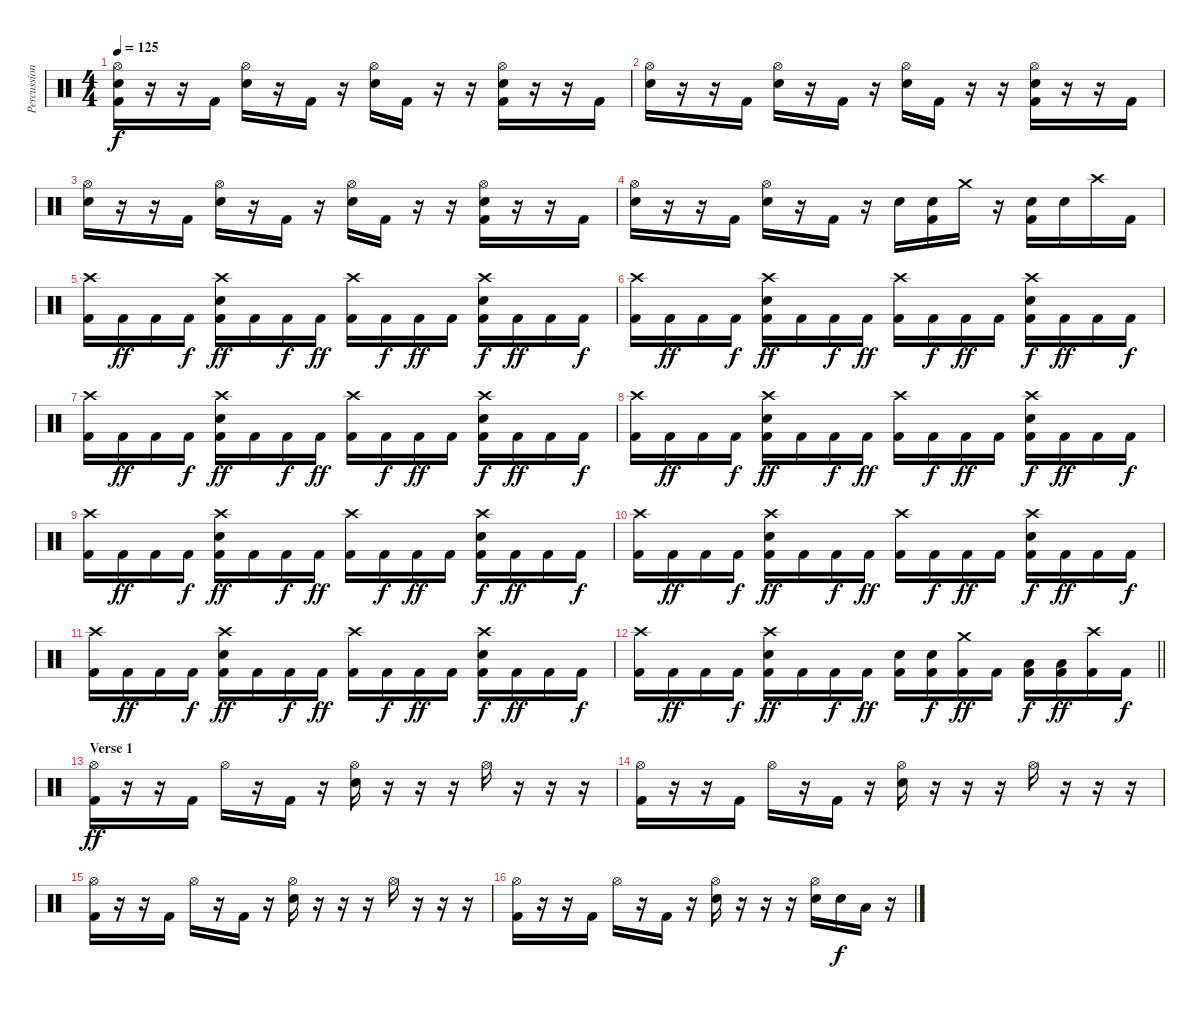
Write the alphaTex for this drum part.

\track ("Percussion" "Percussion") {instrument percussion}
\staff {score}
\articulation defaults
\ts (4 4)
\tempo 125
\clef neutral
\ks c
("Hi-Hat (open)" "Electric Snare (hit)" "Kick (hit) 2").16{dy f} r.16 r.16 "Kick (hit) 2".16 ("Hi-Hat (open)" "Electric Snare (hit)").16 r.16 "Kick (hit) 2".16 r.16 ("Hi-Hat (open)" "Electric Snare (hit)").16 "Kick (hit) 2".16 r.16 r.16 ("Hi-Hat (open)" "Electric Snare (hit)" "Kick (hit) 2").16 r.16 r.16 "Kick (hit) 2".16 |
("Hi-Hat (open)" "Electric Snare (hit)").16 r.16 r.16 "Kick (hit) 2".16 ("Hi-Hat (open)" "Electric Snare (hit)").16 r.16 "Kick (hit) 2".16 r.16 ("Hi-Hat (open)" "Electric Snare (hit)").16 "Kick (hit) 2".16 r.16 r.16 ("Hi-Hat (open)" "Electric Snare (hit)" "Kick (hit) 2").16 r.16 r.16 "Kick (hit) 2".16 |
("Hi-Hat (open)" "Electric Snare (hit)").16 r.16 r.16 "Kick (hit) 2".16 ("Hi-Hat (open)" "Electric Snare (hit)").16 r.16 "Kick (hit) 2".16 r.16 ("Hi-Hat (open)" "Electric Snare (hit)").16 "Kick (hit) 2".16 r.16 r.16 ("Hi-Hat (open)" "Electric Snare (hit)" "Kick (hit) 2").16 r.16 r.16 "Kick (hit) 2".16 |
("Hi-Hat (open)" "Electric Snare (hit)").16 r.16 r.16 "Kick (hit) 2".16 ("Hi-Hat (open)" "Electric Snare (hit)").16 r.16 "Kick (hit) 2".16 r.16 "Electric Snare (hit)".16 ("Electric Snare (hit)" "Kick (hit) 2").16 "Crash medium (hit)".16 r.16 ("Electric Snare (hit)" "Kick (hit) 2").16 "Electric Snare (hit)".16 "Crash high (hit)".16 "Kick (hit) 2".16 |
("Crash high (hit)" "Kick (hit) 2").16 "Kick (hit) 2".16{dy ff} "Kick (hit) 2".16 "Kick (hit) 2".16{dy f} ("Crash high (hit)" "Electric Snare (hit)" "Kick (hit) 2").16{dy ff} "Kick (hit) 2".16 "Kick (hit) 2".16{dy f} "Kick (hit) 2".16{dy ff} ("Crash high (hit)" "Kick (hit) 2").16 "Kick (hit) 2".16{dy f} "Kick (hit) 2".16{dy ff} "Kick (hit) 2".16 ("Crash high (hit)" "Electric Snare (hit)" "Kick (hit) 2").16{dy f} "Kick (hit) 2".16{dy ff} "Kick (hit) 2".16 "Kick (hit) 2".16{dy f} |
("Crash high (hit)" "Kick (hit) 2").16 "Kick (hit) 2".16{dy ff} "Kick (hit) 2".16 "Kick (hit) 2".16{dy f} ("Crash high (hit)" "Electric Snare (hit)" "Kick (hit) 2").16{dy ff} "Kick (hit) 2".16 "Kick (hit) 2".16{dy f} "Kick (hit) 2".16{dy ff} ("Crash high (hit)" "Kick (hit) 2").16 "Kick (hit) 2".16{dy f} "Kick (hit) 2".16{dy ff} "Kick (hit) 2".16 ("Crash high (hit)" "Electric Snare (hit)" "Kick (hit) 2").16{dy f} "Kick (hit) 2".16{dy ff} "Kick (hit) 2".16 "Kick (hit) 2".16{dy f} |
("Crash high (hit)" "Kick (hit) 2").16 "Kick (hit) 2".16{dy ff} "Kick (hit) 2".16 "Kick (hit) 2".16{dy f} ("Crash high (hit)" "Electric Snare (hit)" "Kick (hit) 2").16{dy ff} "Kick (hit) 2".16 "Kick (hit) 2".16{dy f} "Kick (hit) 2".16{dy ff} ("Crash high (hit)" "Kick (hit) 2").16 "Kick (hit) 2".16{dy f} "Kick (hit) 2".16{dy ff} "Kick (hit) 2".16 ("Crash high (hit)" "Electric Snare (hit)" "Kick (hit) 2").16{dy f} "Kick (hit) 2".16{dy ff} "Kick (hit) 2".16 "Kick (hit) 2".16{dy f} |
("Crash high (hit)" "Kick (hit) 2").16 "Kick (hit) 2".16{dy ff} "Kick (hit) 2".16 "Kick (hit) 2".16{dy f} ("Crash high (hit)" "Electric Snare (hit)" "Kick (hit) 2").16{dy ff} "Kick (hit) 2".16 "Kick (hit) 2".16{dy f} "Kick (hit) 2".16{dy ff} ("Crash high (hit)" "Kick (hit) 2").16 "Kick (hit) 2".16{dy f} "Kick (hit) 2".16{dy ff} "Kick (hit) 2".16 ("Crash high (hit)" "Electric Snare (hit)" "Kick (hit) 2").16{dy f} "Kick (hit) 2".16{dy ff} "Kick (hit) 2".16 "Kick (hit) 2".16{dy f} |
("Crash high (hit)" "Kick (hit) 2").16 "Kick (hit) 2".16{dy ff} "Kick (hit) 2".16 "Kick (hit) 2".16{dy f} ("Crash high (hit)" "Electric Snare (hit)" "Kick (hit) 2").16{dy ff} "Kick (hit) 2".16 "Kick (hit) 2".16{dy f} "Kick (hit) 2".16{dy ff} ("Crash high (hit)" "Kick (hit) 2").16 "Kick (hit) 2".16{dy f} "Kick (hit) 2".16{dy ff} "Kick (hit) 2".16 ("Crash high (hit)" "Electric Snare (hit)" "Kick (hit) 2").16{dy f} "Kick (hit) 2".16{dy ff} "Kick (hit) 2".16 "Kick (hit) 2".16{dy f} |
("Crash high (hit)" "Kick (hit) 2").16 "Kick (hit) 2".16{dy ff} "Kick (hit) 2".16 "Kick (hit) 2".16{dy f} ("Crash high (hit)" "Electric Snare (hit)" "Kick (hit) 2").16{dy ff} "Kick (hit) 2".16 "Kick (hit) 2".16{dy f} "Kick (hit) 2".16{dy ff} ("Crash high (hit)" "Kick (hit) 2").16 "Kick (hit) 2".16{dy f} "Kick (hit) 2".16{dy ff} "Kick (hit) 2".16 ("Crash high (hit)" "Electric Snare (hit)" "Kick (hit) 2").16{dy f} "Kick (hit) 2".16{dy ff} "Kick (hit) 2".16 "Kick (hit) 2".16{dy f} |
("Crash high (hit)" "Kick (hit) 2").16 "Kick (hit) 2".16{dy ff} "Kick (hit) 2".16 "Kick (hit) 2".16{dy f} ("Crash high (hit)" "Electric Snare (hit)" "Kick (hit) 2").16{dy ff} "Kick (hit) 2".16 "Kick (hit) 2".16{dy f} "Kick (hit) 2".16{dy ff} ("Crash high (hit)" "Kick (hit) 2").16 "Kick (hit) 2".16{dy f} "Kick (hit) 2".16{dy ff} "Kick (hit) 2".16 ("Crash high (hit)" "Electric Snare (hit)" "Kick (hit) 2").16{dy f} "Kick (hit) 2".16{dy ff} "Kick (hit) 2".16 "Kick (hit) 2".16{dy f} |
\barLineRight lightlight
("Crash high (hit)" "Kick (hit) 2").16 "Kick (hit) 2".16{dy ff} "Kick (hit) 2".16 "Kick (hit) 2".16{dy f} ("Crash high (hit)" "Electric Snare (hit)" "Kick (hit) 2").16{dy ff} "Kick (hit) 2".16 "Kick (hit) 2".16{dy f} "Kick (hit) 2".16{dy ff} ("Electric Snare (hit)" "Kick (hit) 2").16 ("Electric Snare (hit)" "Kick (hit) 2").16{dy f} ("Crash medium (hit)" "Kick (hit) 2").16{dy ff} "Kick (hit) 2".16 ("Low Tom (hit)" "Kick (hit) 2").16{dy f} ("Low Tom (hit)" "Kick (hit) 2").16{dy ff} ("Crash high (hit)" "Kick (hit) 2").16 "Kick (hit) 2".16{dy f} |
\section ("" "Verse 1")
("Hi-Hat (open)" "Kick (hit) 2").16{dy ff} r.16 r.16 "Kick (hit) 2".16 "Hi-Hat (open)".16 r.16 "Kick (hit) 2".16 r.16 ("Hi-Hat (open)" "Electric Snare (hit)").16 r.16 r.16 r.16 "Hi-Hat (open)".16 r.16 r.16 r.16 |
("Hi-Hat (open)" "Kick (hit) 2").16 r.16 r.16 "Kick (hit) 2".16 "Hi-Hat (open)".16 r.16 "Kick (hit) 2".16 r.16 ("Hi-Hat (open)" "Electric Snare (hit)").16 r.16 r.16 r.16 "Hi-Hat (open)".16 r.16 r.16 r.16 |
("Hi-Hat (open)" "Kick (hit) 2").16 r.16 r.16 "Kick (hit) 2".16 "Hi-Hat (open)".16 r.16 "Kick (hit) 2".16 r.16 ("Hi-Hat (open)" "Electric Snare (hit)").16 r.16 r.16 r.16 "Hi-Hat (open)".16 r.16 r.16 r.16 |
("Hi-Hat (open)" "Kick (hit) 2").16 r.16 r.16 "Kick (hit) 2".16 "Hi-Hat (open)".16 r.16 "Kick (hit) 2".16 r.16 ("Hi-Hat (open)" "Electric Snare (hit)").16 r.16 r.16 r.16 ("Hi-Hat (open)" "Electric Snare (hit)").16 "Electric Snare (hit)".16{dy f} "Low Tom (hit)".16 r.16
